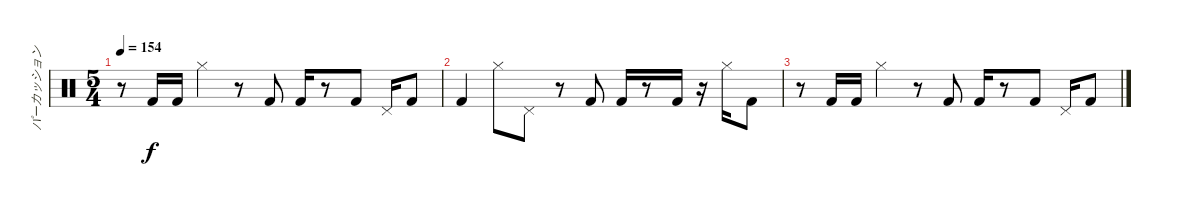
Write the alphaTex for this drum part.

\track ("パーカッション" "パーカッション") {instrument percussion}
\staff {score}
\articulation defaults
\ts (5 4)
\tempo 154
\clef neutral
\ks c
r.8{dy f} "Kick (hit) 2".16 "Kick (hit) 2".16 "Hi-Hat (closed)".4 r.8 "Kick (hit) 2".8 "Kick (hit) 2".16 r.8 "Kick (hit) 2".8 "Pedal Hi-Hat (hit)".16 "Kick (hit) 2".8 |
"Kick (hit) 2".4 "Hi-Hat (closed)".8 "Pedal Hi-Hat (hit)".8 r.8 "Kick (hit) 2".8 "Kick (hit) 2".16 r.8 "Kick (hit) 2".16 r.16 "Hi-Hat (closed)".16 "Kick (hit) 2".8 |
r.8 "Kick (hit) 2".16 "Kick (hit) 2".16 "Hi-Hat (closed)".4 r.8 "Kick (hit) 2".8 "Kick (hit) 2".16 r.8 "Kick (hit) 2".8 "Pedal Hi-Hat (hit)".16 "Kick (hit) 2".8
